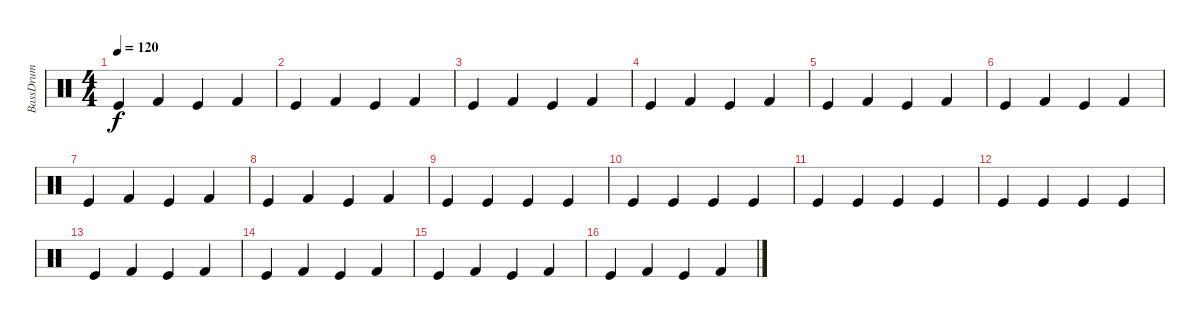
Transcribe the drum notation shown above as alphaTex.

\track ("BassDrum" "BassDrum") {instrument percussion}
\staff {score}
\articulation defaults
\ts (4 4)
\tempo 120
\clef neutral
\ks c "Kick (hit)".4{dy f} "Kick (hit) 2".4 "Kick (hit)".4 "Kick (hit) 2".4
|
"Kick (hit)".4 "Kick (hit) 2".4 "Kick (hit)".4 "Kick (hit) 2".4 |
"Kick (hit)".4 "Kick (hit) 2".4 "Kick (hit)".4 "Kick (hit) 2".4 |
"Kick (hit)".4 "Kick (hit) 2".4 "Kick (hit)".4 "Kick (hit) 2".4 |
"Kick (hit)".4 "Kick (hit) 2".4 "Kick (hit)".4 "Kick (hit) 2".4 |
"Kick (hit)".4 "Kick (hit) 2".4 "Kick (hit)".4 "Kick (hit) 2".4 |
"Kick (hit)".4 "Kick (hit) 2".4 "Kick (hit)".4 "Kick (hit) 2".4 |
"Kick (hit)".4 "Kick (hit) 2".4 "Kick (hit)".4 "Kick (hit) 2".4 |
"Kick (hit)".4 "Kick (hit)".4 "Kick (hit)".4 "Kick (hit)".4 |
"Kick (hit)".4 "Kick (hit)".4 "Kick (hit)".4 "Kick (hit)".4 |
"Kick (hit)".4 "Kick (hit)".4 "Kick (hit)".4 "Kick (hit)".4 |
"Kick (hit)".4 "Kick (hit)".4 "Kick (hit)".4 "Kick (hit)".4 |
"Kick (hit)".4 "Kick (hit) 2".4 "Kick (hit)".4 "Kick (hit) 2".4 |
"Kick (hit)".4 "Kick (hit) 2".4 "Kick (hit)".4 "Kick (hit) 2".4 |
"Kick (hit)".4 "Kick (hit) 2".4 "Kick (hit)".4 "Kick (hit) 2".4 |
"Kick (hit)".4 "Kick (hit) 2".4 "Kick (hit)".4 "Kick (hit) 2".4
